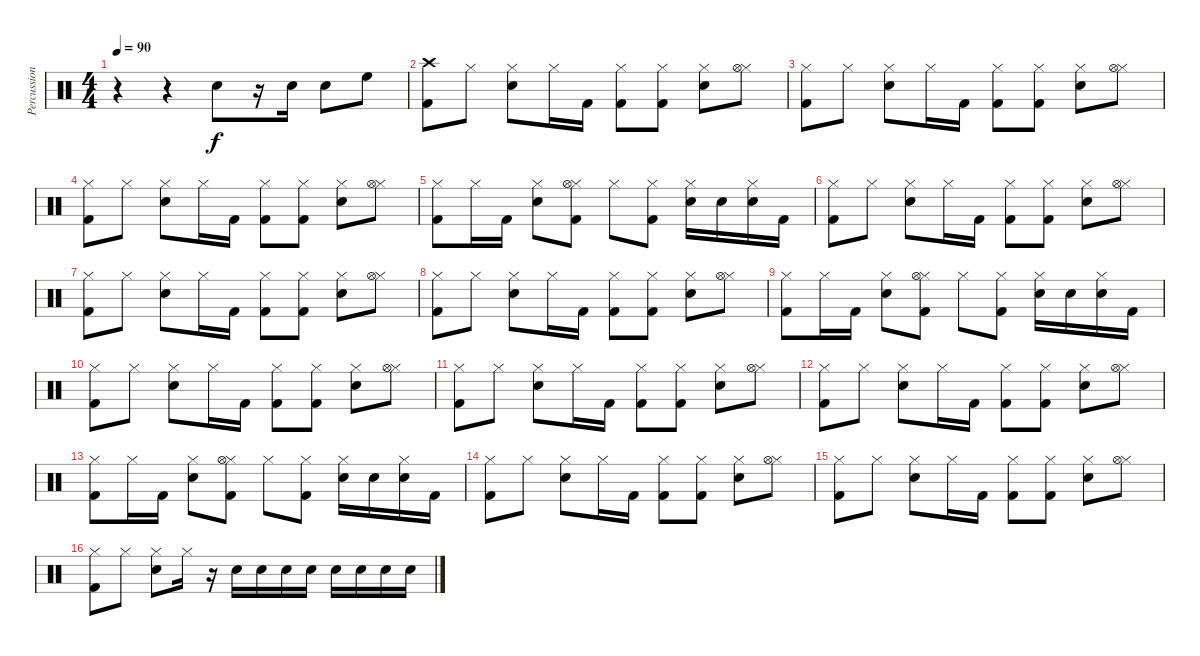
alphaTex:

\track ("Percussions" "Percussion") {instrument percussion}
\staff {score}
\articulation defaults
\ts (4 4)
\tempo 90
\clef neutral
\ks c
r.4{dy f} r.4 "Electric Snare (hit)".8 r.16 "Electric Snare (hit)".16 "Electric Snare (hit)".8 "High Floor Tom (hit)".8 |
("Crash high (hit)" "Kick (hit) 2").8 "Hi-Hat (closed)".8 ("Hi-Hat (closed)" "Electric Snare (hit)").8 "Hi-Hat (closed)".16 "Kick (hit) 2".16 ("Hi-Hat (closed)" "Kick (hit) 2").8 ("Hi-Hat (closed)" "Kick (hit) 2").8 ("Hi-Hat (closed)" "Electric Snare (hit)").8 ("Hi-Hat (closed)" "Hi-Hat (open)").8 |
("Hi-Hat (closed)" "Kick (hit) 2").8 "Hi-Hat (closed)".8 ("Hi-Hat (closed)" "Electric Snare (hit)").8 "Hi-Hat (closed)".16 "Kick (hit) 2".16 ("Hi-Hat (closed)" "Kick (hit) 2").8 ("Hi-Hat (closed)" "Kick (hit) 2").8 ("Hi-Hat (closed)" "Electric Snare (hit)").8 ("Hi-Hat (closed)" "Hi-Hat (open)").8 |
("Hi-Hat (closed)" "Kick (hit) 2").8 "Hi-Hat (closed)".8 ("Hi-Hat (closed)" "Electric Snare (hit)").8 "Hi-Hat (closed)".16 "Kick (hit) 2".16 ("Hi-Hat (closed)" "Kick (hit) 2").8 ("Hi-Hat (closed)" "Kick (hit) 2").8 ("Hi-Hat (closed)" "Electric Snare (hit)").8 ("Hi-Hat (closed)" "Hi-Hat (open)").8 |
("Hi-Hat (closed)" "Kick (hit) 2").8 "Hi-Hat (closed)".16 "Kick (hit) 2".16 ("Hi-Hat (closed)" "Electric Snare (hit)").8 ("Hi-Hat (closed)" "Hi-Hat (open)" "Kick (hit) 2").8 "Hi-Hat (closed)".8 ("Hi-Hat (closed)" "Kick (hit) 2").8 ("Hi-Hat (closed)" "Electric Snare (hit)").16 "Snare (hit)".16 ("Hi-Hat (closed)" "Snare (hit)").16 "Kick (hit) 2".16 |
("Hi-Hat (closed)" "Kick (hit) 2").8 "Hi-Hat (closed)".8 ("Hi-Hat (closed)" "Electric Snare (hit)").8 "Hi-Hat (closed)".16 "Kick (hit) 2".16 ("Hi-Hat (closed)" "Kick (hit) 2").8 ("Hi-Hat (closed)" "Kick (hit) 2").8 ("Hi-Hat (closed)" "Electric Snare (hit)").8 ("Hi-Hat (closed)" "Hi-Hat (open)").8 |
("Hi-Hat (closed)" "Kick (hit) 2").8 "Hi-Hat (closed)".8 ("Hi-Hat (closed)" "Electric Snare (hit)").8 "Hi-Hat (closed)".16 "Kick (hit) 2".16 ("Hi-Hat (closed)" "Kick (hit) 2").8 ("Hi-Hat (closed)" "Kick (hit) 2").8 ("Hi-Hat (closed)" "Electric Snare (hit)").8 ("Hi-Hat (closed)" "Hi-Hat (open)").8 |
("Hi-Hat (closed)" "Kick (hit) 2").8 "Hi-Hat (closed)".8 ("Hi-Hat (closed)" "Electric Snare (hit)").8 "Hi-Hat (closed)".16 "Kick (hit) 2".16 ("Hi-Hat (closed)" "Kick (hit) 2").8 ("Hi-Hat (closed)" "Kick (hit) 2").8 ("Hi-Hat (closed)" "Electric Snare (hit)").8 ("Hi-Hat (closed)" "Hi-Hat (open)").8 |
("Hi-Hat (closed)" "Kick (hit) 2").8 "Hi-Hat (closed)".16 "Kick (hit) 2".16 ("Hi-Hat (closed)" "Electric Snare (hit)").8 ("Hi-Hat (closed)" "Hi-Hat (open)" "Kick (hit) 2").8 "Hi-Hat (closed)".8 ("Hi-Hat (closed)" "Kick (hit) 2").8 ("Hi-Hat (closed)" "Electric Snare (hit)").16 "Snare (hit)".16 ("Hi-Hat (closed)" "Snare (hit)").16 "Kick (hit) 2".16 |
("Hi-Hat (closed)" "Kick (hit) 2").8 "Hi-Hat (closed)".8 ("Hi-Hat (closed)" "Electric Snare (hit)").8 "Hi-Hat (closed)".16 "Kick (hit) 2".16 ("Hi-Hat (closed)" "Kick (hit) 2").8 ("Hi-Hat (closed)" "Kick (hit) 2").8 ("Hi-Hat (closed)" "Electric Snare (hit)").8 ("Hi-Hat (closed)" "Hi-Hat (open)").8 |
("Hi-Hat (closed)" "Kick (hit) 2").8 "Hi-Hat (closed)".8 ("Hi-Hat (closed)" "Electric Snare (hit)").8 "Hi-Hat (closed)".16 "Kick (hit) 2".16 ("Hi-Hat (closed)" "Kick (hit) 2").8 ("Hi-Hat (closed)" "Kick (hit) 2").8 ("Hi-Hat (closed)" "Electric Snare (hit)").8 ("Hi-Hat (closed)" "Hi-Hat (open)").8 |
("Hi-Hat (closed)" "Kick (hit) 2").8 "Hi-Hat (closed)".8 ("Hi-Hat (closed)" "Electric Snare (hit)").8 "Hi-Hat (closed)".16 "Kick (hit) 2".16 ("Hi-Hat (closed)" "Kick (hit) 2").8 ("Hi-Hat (closed)" "Kick (hit) 2").8 ("Hi-Hat (closed)" "Electric Snare (hit)").8 ("Hi-Hat (closed)" "Hi-Hat (open)").8 |
("Hi-Hat (closed)" "Kick (hit) 2").8 "Hi-Hat (closed)".16 "Kick (hit) 2".16 ("Hi-Hat (closed)" "Electric Snare (hit)").8 ("Hi-Hat (closed)" "Hi-Hat (open)" "Kick (hit) 2").8 "Hi-Hat (closed)".8 ("Hi-Hat (closed)" "Kick (hit) 2").8 ("Hi-Hat (closed)" "Electric Snare (hit)").16 "Snare (hit)".16 ("Hi-Hat (closed)" "Snare (hit)").16 "Kick (hit) 2".16 |
("Hi-Hat (closed)" "Kick (hit) 2").8 "Hi-Hat (closed)".8 ("Hi-Hat (closed)" "Electric Snare (hit)").8 "Hi-Hat (closed)".16 "Kick (hit) 2".16 ("Hi-Hat (closed)" "Kick (hit) 2").8 ("Hi-Hat (closed)" "Kick (hit) 2").8 ("Hi-Hat (closed)" "Electric Snare (hit)").8 ("Hi-Hat (closed)" "Hi-Hat (open)").8 |
("Hi-Hat (closed)" "Kick (hit) 2").8 "Hi-Hat (closed)".8 ("Hi-Hat (closed)" "Electric Snare (hit)").8 "Hi-Hat (closed)".16 "Kick (hit) 2".16 ("Hi-Hat (closed)" "Kick (hit) 2").8 ("Hi-Hat (closed)" "Kick (hit) 2").8 ("Hi-Hat (closed)" "Electric Snare (hit)").8 ("Hi-Hat (closed)" "Hi-Hat (open)").8 |
("Hi-Hat (closed)" "Kick (hit) 2").8 "Hi-Hat (closed)".8 ("Hi-Hat (closed)" "Electric Snare (hit)").8 "Hi-Hat (closed)".16 r.16 "Electric Snare (hit)".16 "Electric Snare (hit)".16 "Electric Snare (hit)".16 "Electric Snare (hit)".16 "Electric Snare (hit)".16 "Electric Snare (hit)".16 "Electric Snare (hit)".16 "Electric Snare (hit)".16
